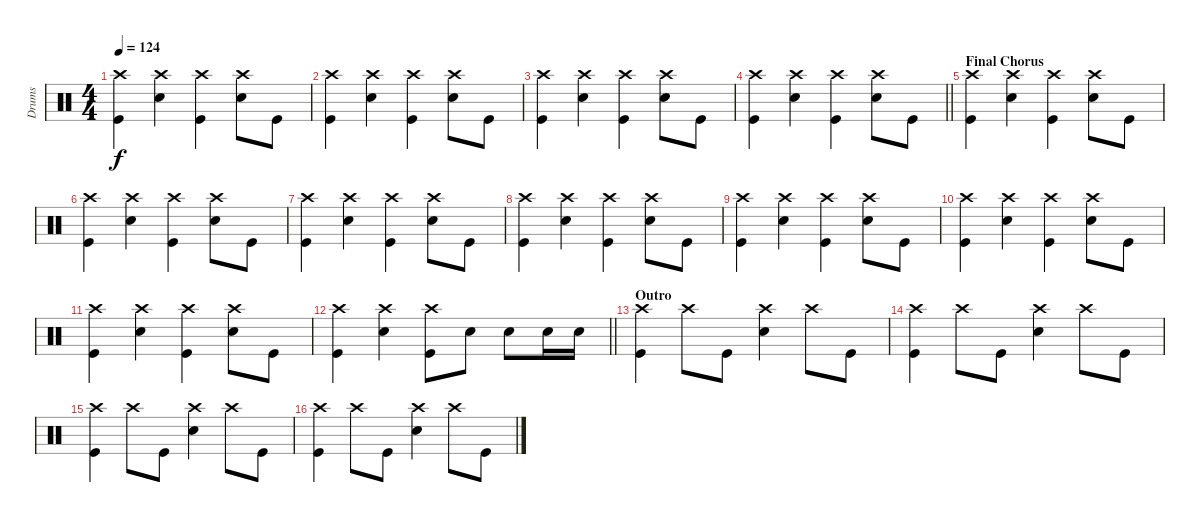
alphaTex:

\track ("Drums" "Drums") {instrument percussion}
\staff {score}
\articulation defaults
\ts (4 4)
\tempo 124
\clef neutral
\ks c
("Kick (hit)" "Crash high (hit)").4{dy f} ("Snare (hit) 2" "Crash high (hit)").4 ("Kick (hit)" "Crash high (hit)").4 ("Snare (hit) 2" "Crash high (hit)").8 "Kick (hit)".8 |
("Kick (hit)" "Crash high (hit)").4 ("Snare (hit) 2" "Crash high (hit)").4 ("Kick (hit)" "Crash high (hit)").4 ("Snare (hit) 2" "Crash high (hit)").8 "Kick (hit)".8 |
("Kick (hit)" "Crash high (hit)").4 ("Snare (hit) 2" "Crash high (hit)").4 ("Kick (hit)" "Crash high (hit)").4 ("Snare (hit) 2" "Crash high (hit)").8 "Kick (hit)".8 |
\barLineRight lightlight
("Kick (hit)" "Crash high (hit)").4 ("Snare (hit) 2" "Crash high (hit)").4 ("Kick (hit)" "Crash high (hit)").4 ("Snare (hit) 2" "Crash high (hit)").8 "Kick (hit)".8 |
\section ("" "Final Chorus")
("Kick (hit)" "Crash high (hit)").4 ("Snare (hit) 2" "Crash high (hit)").4 ("Kick (hit)" "Crash high (hit)").4 ("Snare (hit) 2" "Crash high (hit)").8 "Kick (hit)".8 |
("Kick (hit)" "Crash high (hit)").4 ("Snare (hit) 2" "Crash high (hit)").4 ("Kick (hit)" "Crash high (hit)").4 ("Snare (hit) 2" "Crash high (hit)").8 "Kick (hit)".8 |
("Kick (hit)" "Crash high (hit)").4 ("Snare (hit) 2" "Crash high (hit)").4 ("Kick (hit)" "Crash high (hit)").4 ("Snare (hit) 2" "Crash high (hit)").8 "Kick (hit)".8 |
("Kick (hit)" "Crash high (hit)").4 ("Snare (hit) 2" "Crash high (hit)").4 ("Kick (hit)" "Crash high (hit)").4 ("Snare (hit) 2" "Crash high (hit)").8 "Kick (hit)".8 |
("Kick (hit)" "Crash high (hit)").4 ("Snare (hit) 2" "Crash high (hit)").4 ("Kick (hit)" "Crash high (hit)").4 ("Snare (hit) 2" "Crash high (hit)").8 "Kick (hit)".8 |
("Kick (hit)" "Crash high (hit)").4 ("Snare (hit) 2" "Crash high (hit)").4 ("Kick (hit)" "Crash high (hit)").4 ("Snare (hit) 2" "Crash high (hit)").8 "Kick (hit)".8 |
("Kick (hit)" "Crash high (hit)").4 ("Snare (hit) 2" "Crash high (hit)").4 ("Kick (hit)" "Crash high (hit)").4 ("Snare (hit) 2" "Crash high (hit)").8 "Kick (hit)".8 |
\barLineRight lightlight
("Kick (hit)" "Crash high (hit)").4 ("Snare (hit) 2" "Crash high (hit)").4 ("Kick (hit)" "Crash high (hit)").8 "Snare (hit) 2".8 "Snare (hit) 2".8 "Snare (hit) 2".16 "Snare (hit) 2".16 |
\section ("" "Outro")
("Kick (hit)" "Crash high (hit)").4 "Crash high (hit)".8 "Kick (hit)".8 ("Snare (hit) 2" "Crash high (hit)").4 "Crash high (hit)".8 "Kick (hit)".8 |
("Kick (hit)" "Crash high (hit)").4 "Crash high (hit)".8 "Kick (hit)".8 ("Snare (hit) 2" "Crash high (hit)").4 "Crash high (hit)".8 "Kick (hit)".8 |
("Kick (hit)" "Crash high (hit)").4 "Crash high (hit)".8 "Kick (hit)".8 ("Snare (hit) 2" "Crash high (hit)").4 "Crash high (hit)".8 "Kick (hit)".8 |
("Kick (hit)" "Crash high (hit)").4 "Crash high (hit)".8 "Kick (hit)".8 ("Snare (hit) 2" "Crash high (hit)").4 "Crash high (hit)".8 "Kick (hit)".8
